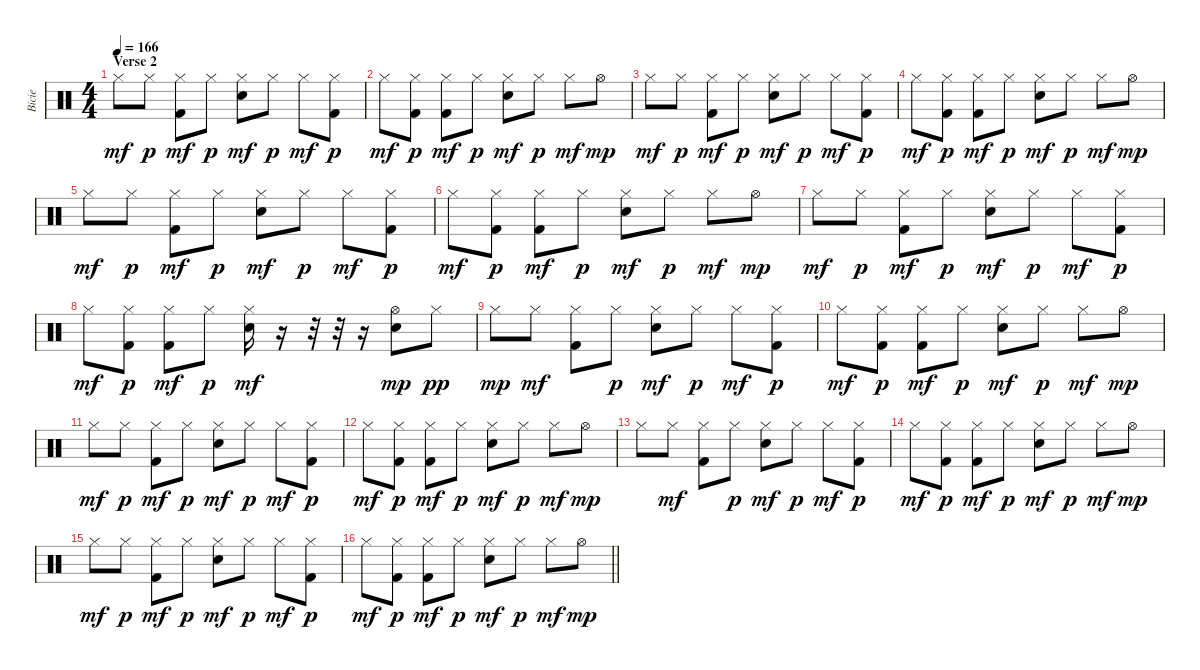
\track ("Bicie" "Bicie") {instrument percussion}
\staff {score}
\articulation defaults
\ts (4 4)
\section ("" "Verse 2")
\tempo 166
\clef neutral
\ks c "Hi-Hat (closed)".8{dy mf} "Hi-Hat (closed)".8{dy p}
("Kick (hit) 2" "Hi-Hat (closed)").8{dy mf} "Hi-Hat (closed)".8{dy p} ("Electric Snare (hit)" "Hi-Hat (closed)").8{dy mf} "Hi-Hat (closed)".8{dy p} "Hi-Hat (closed)".8{dy mf} ("Kick (hit) 2" "Hi-Hat (closed)").8{dy p} |
"Hi-Hat (closed)".8{dy mf} ("Kick (hit) 2" "Hi-Hat (closed)").8{dy p} ("Kick (hit) 2" "Hi-Hat (closed)").8{dy mf} "Hi-Hat (closed)".8{dy p} ("Electric Snare (hit)" "Hi-Hat (closed)").8{dy mf} "Hi-Hat (closed)".8{dy p} "Hi-Hat (closed)".8{dy mf} "Hi-Hat (open)".8{dy mp} |
"Hi-Hat (closed)".8{dy mf} "Hi-Hat (closed)".8{dy p} ("Kick (hit) 2" "Hi-Hat (closed)").8{dy mf} "Hi-Hat (closed)".8{dy p} ("Electric Snare (hit)" "Hi-Hat (closed)").8{dy mf} "Hi-Hat (closed)".8{dy p} "Hi-Hat (closed)".8{dy mf} ("Kick (hit) 2" "Hi-Hat (closed)").8{dy p} |
"Hi-Hat (closed)".8{dy mf} ("Kick (hit) 2" "Hi-Hat (closed)").8{dy p} ("Kick (hit) 2" "Hi-Hat (closed)").8{dy mf} "Hi-Hat (closed)".8{dy p} ("Electric Snare (hit)" "Hi-Hat (closed)").8{dy mf} "Hi-Hat (closed)".8{dy p} "Hi-Hat (closed)".8{dy mf} "Hi-Hat (open)".8{dy mp} |
"Hi-Hat (closed)".8{dy mf} "Hi-Hat (closed)".8{dy p} ("Kick (hit) 2" "Hi-Hat (closed)").8{dy mf} "Hi-Hat (closed)".8{dy p} ("Electric Snare (hit)" "Hi-Hat (closed)").8{dy mf} "Hi-Hat (closed)".8{dy p} "Hi-Hat (closed)".8{dy mf} ("Kick (hit) 2" "Hi-Hat (closed)").8{dy p} |
"Hi-Hat (closed)".8{dy mf} ("Kick (hit) 2" "Hi-Hat (closed)").8{dy p} ("Kick (hit) 2" "Hi-Hat (closed)").8{dy mf} "Hi-Hat (closed)".8{dy p} ("Electric Snare (hit)" "Hi-Hat (closed)").8{dy mf} "Hi-Hat (closed)".8{dy p} "Hi-Hat (closed)".8{dy mf} "Hi-Hat (open)".8{dy mp} |
"Hi-Hat (closed)".8{dy mf} "Hi-Hat (closed)".8{dy p} ("Kick (hit) 2" "Hi-Hat (closed)").8{dy mf} "Hi-Hat (closed)".8{dy p} ("Electric Snare (hit)" "Hi-Hat (closed)").8{dy mf} "Hi-Hat (closed)".8{dy p} "Hi-Hat (closed)".8{dy mf} ("Kick (hit) 2" "Hi-Hat (closed)").8{dy p} |
"Hi-Hat (closed)".8{dy mf} ("Kick (hit) 2" "Hi-Hat (closed)").8{dy p} ("Kick (hit) 2" "Hi-Hat (closed)").8{dy mf} "Hi-Hat (closed)".8{dy p} ("Electric Snare (hit)" "Hi-Hat (closed)").16{dy mf} r.16 r.32 r.32 r.16 ("Electric Snare (hit)" "Hi-Hat (open)").8{dy mp} "Hi-Hat (closed)".8{dy pp} |
"Hi-Hat (closed)".8{dy mp} "Hi-Hat (closed)".8{dy mf} ("Kick (hit) 2" "Hi-Hat (closed)").8 "Hi-Hat (closed)".8{dy p} ("Electric Snare (hit)" "Hi-Hat (closed)").8{dy mf} "Hi-Hat (closed)".8{dy p} "Hi-Hat (closed)".8{dy mf} ("Kick (hit) 2" "Hi-Hat (closed)").8{dy p} |
"Hi-Hat (closed)".8{dy mf} ("Kick (hit) 2" "Hi-Hat (closed)").8{dy p} ("Kick (hit) 2" "Hi-Hat (closed)").8{dy mf} "Hi-Hat (closed)".8{dy p} ("Electric Snare (hit)" "Hi-Hat (closed)").8{dy mf} "Hi-Hat (closed)".8{dy p} "Hi-Hat (closed)".8{dy mf} "Hi-Hat (open)".8{dy mp} |
"Hi-Hat (closed)".8{dy mf} "Hi-Hat (closed)".8{dy p} ("Kick (hit) 2" "Hi-Hat (closed)").8{dy mf} "Hi-Hat (closed)".8{dy p} ("Electric Snare (hit)" "Hi-Hat (closed)").8{dy mf} "Hi-Hat (closed)".8{dy p} "Hi-Hat (closed)".8{dy mf} ("Kick (hit) 2" "Hi-Hat (closed)").8{dy p} |
"Hi-Hat (closed)".8{dy mf} ("Kick (hit) 2" "Hi-Hat (closed)").8{dy p} ("Kick (hit) 2" "Hi-Hat (closed)").8{dy mf} "Hi-Hat (closed)".8{dy p} ("Electric Snare (hit)" "Hi-Hat (closed)").8{dy mf} "Hi-Hat (closed)".8{dy p} "Hi-Hat (closed)".8{dy mf} "Hi-Hat (open)".8{dy mp} |
"Hi-Hat (closed)".8 "Hi-Hat (closed)".8{dy mf} ("Kick (hit) 2" "Hi-Hat (closed)").8 "Hi-Hat (closed)".8{dy p} ("Electric Snare (hit)" "Hi-Hat (closed)").8{dy mf} "Hi-Hat (closed)".8{dy p} "Hi-Hat (closed)".8{dy mf} ("Kick (hit) 2" "Hi-Hat (closed)").8{dy p} |
"Hi-Hat (closed)".8{dy mf} ("Kick (hit) 2" "Hi-Hat (closed)").8{dy p} ("Kick (hit) 2" "Hi-Hat (closed)").8{dy mf} "Hi-Hat (closed)".8{dy p} ("Electric Snare (hit)" "Hi-Hat (closed)").8{dy mf} "Hi-Hat (closed)".8{dy p} "Hi-Hat (closed)".8{dy mf} "Hi-Hat (open)".8{dy mp} |
"Hi-Hat (closed)".8{dy mf} "Hi-Hat (closed)".8{dy p} ("Kick (hit) 2" "Hi-Hat (closed)").8{dy mf} "Hi-Hat (closed)".8{dy p} ("Electric Snare (hit)" "Hi-Hat (closed)").8{dy mf} "Hi-Hat (closed)".8{dy p} "Hi-Hat (closed)".8{dy mf} ("Kick (hit) 2" "Hi-Hat (closed)").8{dy p} |
\barLineRight lightlight "Hi-Hat (closed)".8{dy mf}
("Kick (hit) 2" "Hi-Hat (closed)").8{dy p} ("Kick (hit) 2" "Hi-Hat (closed)").8{dy mf} "Hi-Hat (closed)".8{dy p} ("Electric Snare (hit)" "Hi-Hat (closed)").8{dy mf} "Hi-Hat (closed)".8{dy p} "Hi-Hat (closed)".8{dy mf} "Hi-Hat (open)".8{dy mp}
